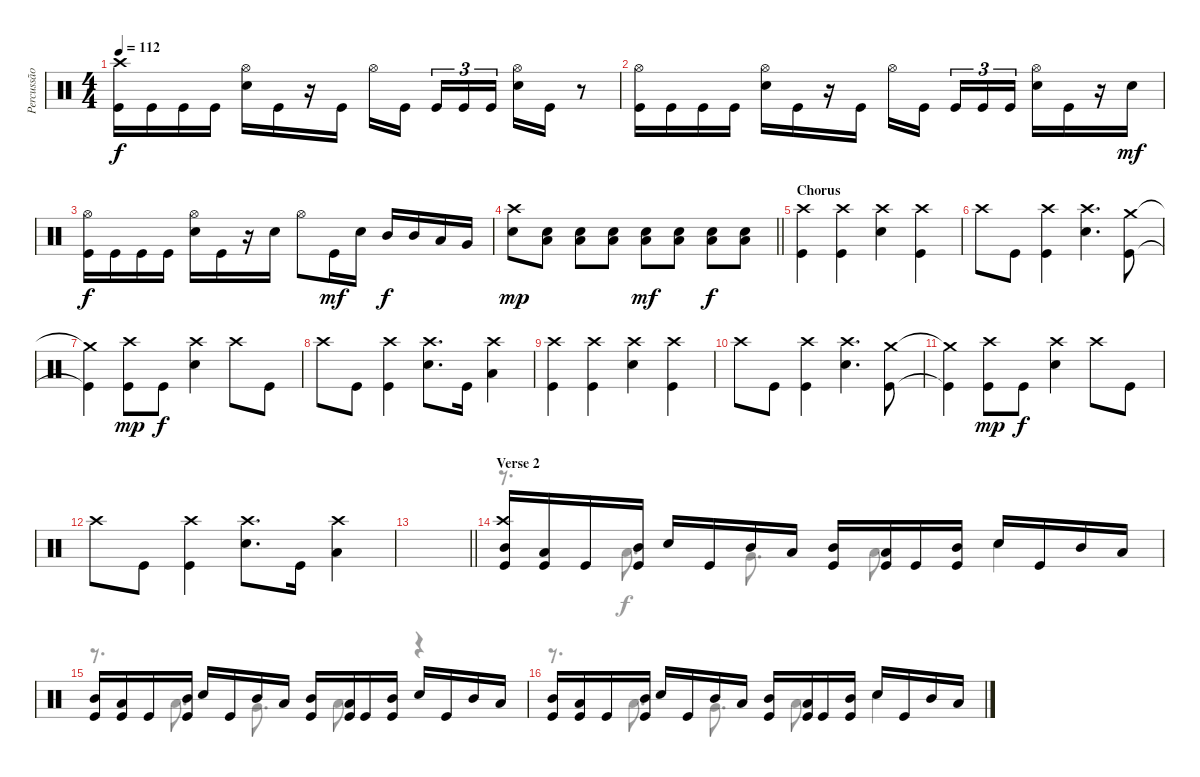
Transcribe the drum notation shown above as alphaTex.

\track ("Percussão" "Percussão") {instrument percussion}
\staff {score}
\articulation defaults
\voice
\ts (4 4)
\tempo 112
\clef neutral
\ks c
("Crash high (hit)" "Kick (hit)").16{dy f} "Kick (hit)".16 "Kick (hit)".16 "Kick (hit)".16 ("Hi-Hat (open)" "Electric Snare (hit)").16 "Kick (hit)".16 r.16 "Kick (hit)".16 "Hi-Hat (open)".16 "Kick (hit)".16{beam splitsecondary} "Kick (hit)".16{tu (3 2)} "Kick (hit)".16{tu (3 2)} "Kick (hit)".16{tu (3 2)} ("Hi-Hat (open)" "Electric Snare (hit)").16 "Kick (hit)".16 r.8 |
("Hi-Hat (open)" "Kick (hit)").16 "Kick (hit)".16 "Kick (hit)".16 "Kick (hit)".16 ("Hi-Hat (open)" "Electric Snare (hit)").16 "Kick (hit)".16 r.16 "Kick (hit)".16 "Hi-Hat (open)".16 "Kick (hit)".16{beam splitsecondary} "Kick (hit)".16{tu (3 2)} "Kick (hit)".16{tu (3 2)} "Kick (hit)".16{tu (3 2)} ("Hi-Hat (open)" "Electric Snare (hit)").16 "Kick (hit)".16 r.16 "Electric Snare (hit)".16{dy mf} |
("Hi-Hat (open)" "Kick (hit)").16{dy f} "Kick (hit)".16 "Kick (hit)".16 "Kick (hit)".16 ("Hi-Hat (open)" "Electric Snare (hit)").16 "Kick (hit)".16 r.16 "Electric Snare (hit)".16 "Hi-Hat (open)".8 "Kick (hit)".16{dy mf} "Electric Snare (hit)".16 "Mid Tom (hit)".16{dy f} "Mid Tom (hit)".16 "Low Tom (hit)".16 "Very Low Tom (hit)".16 |
\barLineRight lightlight
("Crash high (hit)" "Electric Snare (hit)").8{dy mp} ("Low Floor Tom (hit)" "Electric Snare (hit)").8 ("Low Floor Tom (hit)" "Electric Snare (hit)").8 ("Low Floor Tom (hit)" "Electric Snare (hit)").8 ("Low Floor Tom (hit)" "Electric Snare (hit)").8{dy mf} ("Low Floor Tom (hit)" "Electric Snare (hit)").8 ("Low Floor Tom (hit)" "Electric Snare (hit)").8{dy f} ("Low Floor Tom (hit)" "Electric Snare (hit)").8 |
\section ("" "Chorus")
("Crash high (hit)" "Kick (hit)").4 ("Crash high (hit)" "Kick (hit)").4 ("Crash high (hit)" "Electric Snare (hit)").4 ("Crash high (hit)" "Kick (hit)").4 |
"Crash high (hit)".8 "Kick (hit)".8 ("Crash high (hit)" "Kick (hit)").4 ("Crash high (hit)" "Electric Snare (hit)").4{d} ("Crash medium (hit)" "Kick (hit)").8 |
("Crash medium (hit)"{t} "Kick (hit)"{t}).4 ("Crash high (hit)" "Kick (hit)").8{dy mp} "Kick (hit)".8{dy f} ("Crash high (hit)" "Electric Snare (hit)").4 "Crash high (hit)".8 "Kick (hit)".8 |
"Crash high (hit)".8 "Kick (hit)".8 ("Crash high (hit)" "Kick (hit)").4 ("Crash high (hit)" "Electric Snare (hit)").8{d} "Kick (hit)".16 ("Crash high (hit)" "Low Tom (hit)").4 |
("Crash high (hit)" "Kick (hit)").4 ("Crash high (hit)" "Kick (hit)").4 ("Crash high (hit)" "Electric Snare (hit)").4 ("Crash high (hit)" "Kick (hit)").4 |
"Crash high (hit)".8 "Kick (hit)".8 ("Crash high (hit)" "Kick (hit)").4 ("Crash high (hit)" "Electric Snare (hit)").4{d} ("Crash medium (hit)" "Kick (hit)").8 |
("Crash medium (hit)"{t} "Kick (hit)"{t}).4 ("Crash high (hit)" "Kick (hit)").8{dy mp} "Kick (hit)".8{dy f} ("Crash high (hit)" "Electric Snare (hit)").4 "Crash high (hit)".8 "Kick (hit)".8 |
"Crash high (hit)".8 "Kick (hit)".8 ("Crash high (hit)" "Kick (hit)").4 ("Crash high (hit)" "Electric Snare (hit)").8{d} "Kick (hit)".16 ("Crash high (hit)" "Low Tom (hit)").4 |
\barLineRight lightlight
|
\section ("" "Verse 2")
("Crash high (hit)" "Mid Tom (hit)" "Kick (hit)").16 ("Low Tom (hit)" "Kick (hit)").16 "Kick (hit)".16 ("Mid Tom (hit)" "Kick (hit)").16 "Electric Snare (hit)".16 "Kick (hit)".16 "Mid Tom (hit)".16 "Low Tom (hit)".16 ("Mid Tom (hit)" "Kick (hit)").16 ("Low Tom (hit)" "Kick (hit)").16 "Kick (hit)".16 ("Mid Tom (hit)" "Kick (hit)").16 "Electric Snare (hit)".16 "Kick (hit)".16 "Mid Tom (hit)".16 "Low Tom (hit)".16 |
("Mid Tom (hit)" "Kick (hit)").16 ("Low Tom (hit)" "Kick (hit)").16 "Kick (hit)".16 ("Mid Tom (hit)" "Kick (hit)").16 "Electric Snare (hit)".16 "Kick (hit)".16 "Mid Tom (hit)".16 "Low Tom (hit)".16 ("Mid Tom (hit)" "Kick (hit)").16 ("Low Tom (hit)" "Kick (hit)").16 "Kick (hit)".16 ("Mid Tom (hit)" "Kick (hit)").16 "Electric Snare (hit)".16 "Kick (hit)".16 "Mid Tom (hit)".16 "Low Tom (hit)".16 |
("Mid Tom (hit)" "Kick (hit)").16 ("Low Tom (hit)" "Kick (hit)").16 "Kick (hit)".16 ("Mid Tom (hit)" "Kick (hit)").16 "Electric Snare (hit)".16 "Kick (hit)".16 "Mid Tom (hit)".16 "Low Tom (hit)".16 ("Mid Tom (hit)" "Kick (hit)").16 ("Low Tom (hit)" "Kick (hit)").16 "Kick (hit)".16 ("Mid Tom (hit)" "Kick (hit)").16 "Electric Snare (hit)".16 "Kick (hit)".16 "Mid Tom (hit)".16 "Low Tom (hit)".16
\voice
\clef neutral
\ottava regular
\simile none
\ks c
|
|
|
\barLineRight lightlight
|
|
|
|
|
|
|
|
|
\barLineRight lightlight
|
r.8{d} "Low Tom (hit)".8{d} "Very Low Tom (hit)".8{d} "Low Floor Tom (hit)".8{d} "Electric Snare (hit)".4 |
r.8{d} "Low Tom (hit)".8{d} "Very Low Tom (hit)".8{d} "Low Floor Tom (hit)".8{d} r.4 |
r.8{d} "Low Tom (hit)".8{d} "Very Low Tom (hit)".8{d} "Low Floor Tom (hit)".8{d} "Electric Snare (hit)".4
